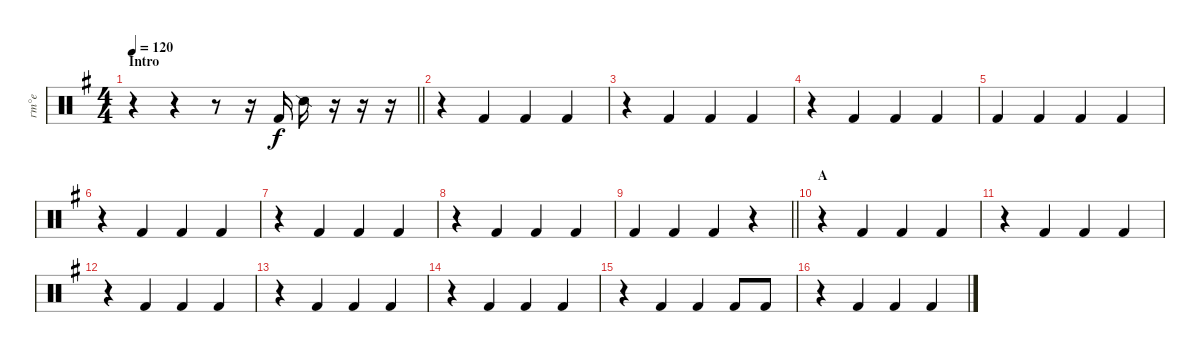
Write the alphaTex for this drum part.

\track ("ґт°е" "ґт°е") {instrument percussion}
\staff {score}
\articulation defaults
\ts (4 4)
\section ("" "Intro")
\tempo 120
\clef neutral
\barLineRight lightlight
\ks g
r.4{dy f} r.4 r.8 r.16 "Kick (hit) 2".16 "Snare (side stick) 2".16 r.16 r.16 r.16 |
\section ("" "")
r.4 "Kick (hit) 2".4 "Kick (hit) 2".4 "Kick (hit) 2".4 |
r.4 "Kick (hit) 2".4 "Kick (hit) 2".4 "Kick (hit) 2".4 |
r.4 "Kick (hit) 2".4 "Kick (hit) 2".4 "Kick (hit) 2".4 |
"Kick (hit) 2".4 "Kick (hit) 2".4 "Kick (hit) 2".4 "Kick (hit) 2".4 |
r.4 "Kick (hit) 2".4 "Kick (hit) 2".4 "Kick (hit) 2".4 |
r.4 "Kick (hit) 2".4 "Kick (hit) 2".4 "Kick (hit) 2".4 |
r.4 "Kick (hit) 2".4 "Kick (hit) 2".4 "Kick (hit) 2".4 |
\barLineRight lightlight "Kick (hit) 2".4 "Kick (hit) 2".4 "Kick (hit) 2".4
r.4 |
\section ("" "A")
r.4 "Kick (hit) 2".4 "Kick (hit) 2".4 "Kick (hit) 2".4 |
r.4 "Kick (hit) 2".4 "Kick (hit) 2".4 "Kick (hit) 2".4 |
r.4 "Kick (hit) 2".4 "Kick (hit) 2".4 "Kick (hit) 2".4 |
r.4 "Kick (hit) 2".4 "Kick (hit) 2".4 "Kick (hit) 2".4 |
r.4 "Kick (hit) 2".4 "Kick (hit) 2".4 "Kick (hit) 2".4 |
r.4 "Kick (hit) 2".4 "Kick (hit) 2".4 "Kick (hit) 2".8 "Kick (hit) 2".8 |
r.4 "Kick (hit) 2".4 "Kick (hit) 2".4 "Kick (hit) 2".4
